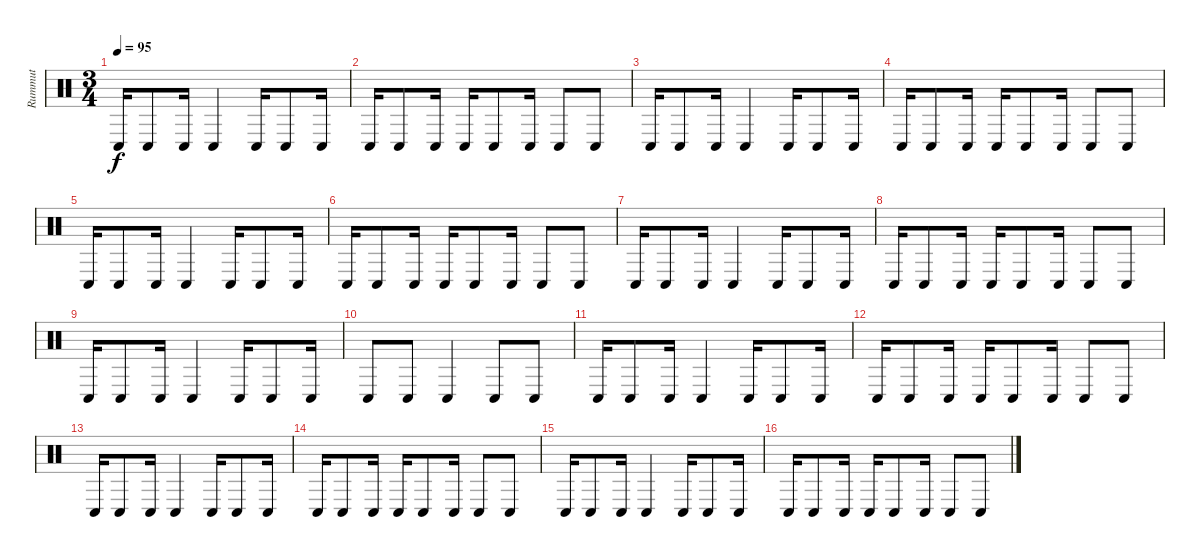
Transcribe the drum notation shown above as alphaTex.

\track ("Rummut" "Rummut") {instrument percussion}
\staff {score}
\articulation defaults
\ts (3 4)
\tempo 95
\clef neutral
\ks c "Conga low (hit)".16{dy f} "Conga low (hit)".8 "Conga low (hit)".16 "Conga low (hit)".4 "Conga low (hit)".16 "Conga low (hit)".8 "Conga low (hit)".16
|
"Conga low (hit)".16 "Conga low (hit)".8 "Conga low (hit)".16 "Conga low (hit)".16 "Conga low (hit)".8 "Conga low (hit)".16 "Conga low (hit)".8 "Conga low (hit)".8 |
"Conga low (hit)".16 "Conga low (hit)".8 "Conga low (hit)".16 "Conga low (hit)".4 "Conga low (hit)".16 "Conga low (hit)".8 "Conga low (hit)".16 |
"Conga low (hit)".16 "Conga low (hit)".8 "Conga low (hit)".16 "Conga low (hit)".16 "Conga low (hit)".8 "Conga low (hit)".16 "Conga low (hit)".8 "Conga low (hit)".8 |
"Conga low (hit)".16 "Conga low (hit)".8 "Conga low (hit)".16 "Conga low (hit)".4 "Conga low (hit)".16 "Conga low (hit)".8 "Conga low (hit)".16 |
"Conga low (hit)".16 "Conga low (hit)".8 "Conga low (hit)".16 "Conga low (hit)".16 "Conga low (hit)".8 "Conga low (hit)".16 "Conga low (hit)".8 "Conga low (hit)".8 |
"Conga low (hit)".16 "Conga low (hit)".8 "Conga low (hit)".16 "Conga low (hit)".4 "Conga low (hit)".16 "Conga low (hit)".8 "Conga low (hit)".16 |
"Conga low (hit)".16 "Conga low (hit)".8 "Conga low (hit)".16 "Conga low (hit)".16 "Conga low (hit)".8 "Conga low (hit)".16 "Conga low (hit)".8 "Conga low (hit)".8 |
"Conga low (hit)".16 "Conga low (hit)".8 "Conga low (hit)".16 "Conga low (hit)".4 "Conga low (hit)".16 "Conga low (hit)".8 "Conga low (hit)".16 |
"Conga low (hit)".8 "Conga low (hit)".8 "Conga low (hit)".4 "Conga low (hit)".8 "Conga low (hit)".8 |
"Conga low (hit)".16 "Conga low (hit)".8 "Conga low (hit)".16 "Conga low (hit)".4 "Conga low (hit)".16 "Conga low (hit)".8 "Conga low (hit)".16 |
"Conga low (hit)".16 "Conga low (hit)".8 "Conga low (hit)".16 "Conga low (hit)".16 "Conga low (hit)".8 "Conga low (hit)".16 "Conga low (hit)".8 "Conga low (hit)".8 |
"Conga low (hit)".16 "Conga low (hit)".8 "Conga low (hit)".16 "Conga low (hit)".4 "Conga low (hit)".16 "Conga low (hit)".8 "Conga low (hit)".16 |
"Conga low (hit)".16 "Conga low (hit)".8 "Conga low (hit)".16 "Conga low (hit)".16 "Conga low (hit)".8 "Conga low (hit)".16 "Conga low (hit)".8 "Conga low (hit)".8 |
"Conga low (hit)".16 "Conga low (hit)".8 "Conga low (hit)".16 "Conga low (hit)".4 "Conga low (hit)".16 "Conga low (hit)".8 "Conga low (hit)".16 |
"Conga low (hit)".16 "Conga low (hit)".8 "Conga low (hit)".16 "Conga low (hit)".16 "Conga low (hit)".8 "Conga low (hit)".16 "Conga low (hit)".8 "Conga low (hit)".8
